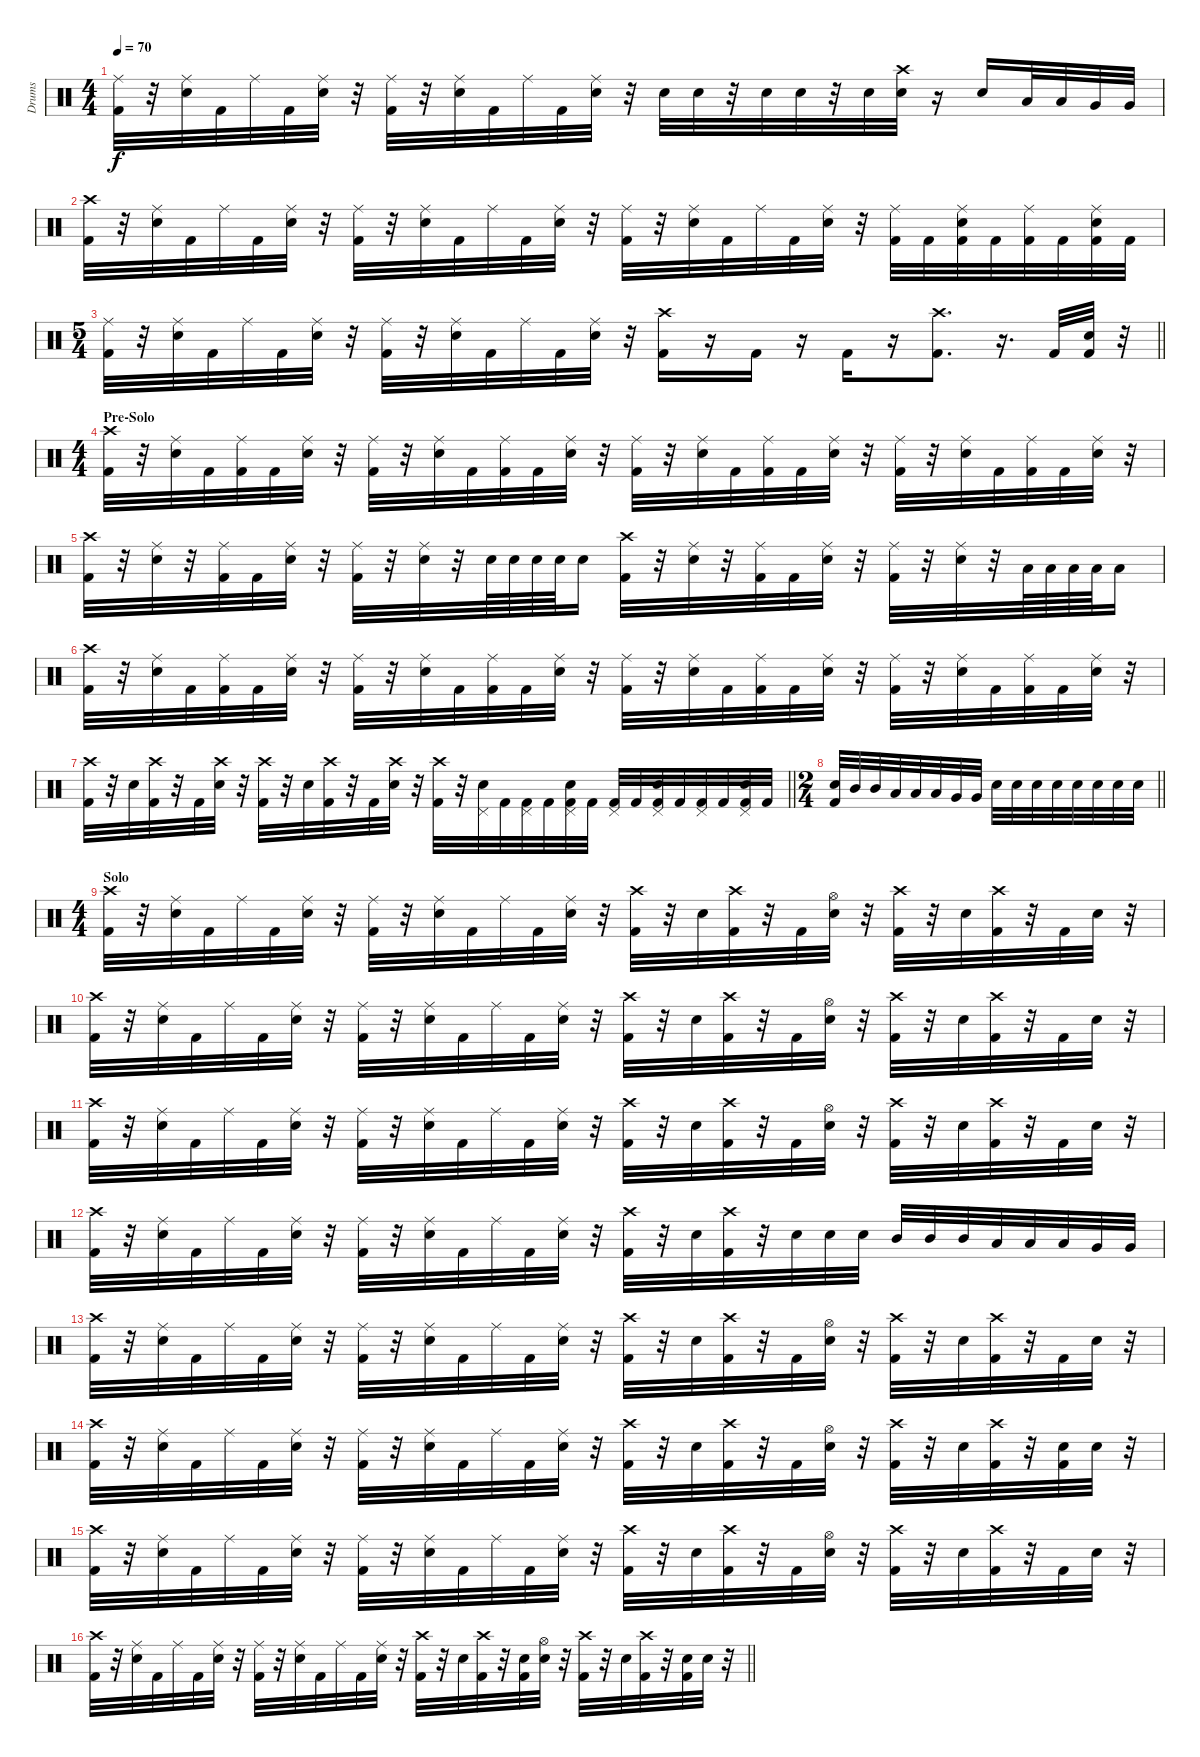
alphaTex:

\track ("Drums" "Drums") {instrument percussion}
\staff {score}
\articulation defaults
\ts (4 4)
\tempo 70
\clef neutral
\ks c
("Ride (middle)" "Kick (hit) 2").32{dy f} r.32 ("Ride (middle)" "Snare (hit) 2").32 "Kick (hit) 2".32 "Ride (middle)".32 "Kick (hit) 2".32 ("Ride (middle)" "Snare (hit) 2").32 r.32 ("Ride (middle)" "Kick (hit) 2").32 r.32 ("Ride (middle)" "Snare (hit) 2").32 "Kick (hit) 2".32 "Ride (middle)".32 "Kick (hit) 2".32 ("Ride (middle)" "Snare (hit) 2").32 r.32 "Snare (hit) 2".32 "Snare (hit) 2".32 r.32 "Snare (hit) 2".32 "Snare (hit) 2".32 r.32 "Snare (hit) 2".32 ("Crash high (hit)" "Snare (hit) 2").32 r.16 "Snare (hit) 2".16 "Low Tom (hit)".32 "Low Tom (hit)".32 "Very Low Tom (hit)".32 "Very Low Tom (hit)".32 |
("Crash high (hit)" "Kick (hit) 2").32 r.32 ("Ride (middle)" "Snare (hit) 2").32 "Kick (hit) 2".32 "Ride (middle)".32 "Kick (hit) 2".32 ("Ride (middle)" "Snare (hit) 2").32 r.32 ("Ride (middle)" "Kick (hit) 2").32 r.32 ("Ride (middle)" "Snare (hit) 2").32 "Kick (hit) 2".32 "Ride (middle)".32 "Kick (hit) 2".32 ("Ride (middle)" "Snare (hit) 2").32 r.32 ("Ride (middle)" "Kick (hit) 2").32 r.32 ("Ride (middle)" "Snare (hit) 2").32 "Kick (hit) 2".32 "Ride (middle)".32 "Kick (hit) 2".32 ("Ride (middle)" "Snare (hit) 2").32 r.32 ("Ride (middle)" "Kick (hit) 2").32 "Kick (hit) 2".32 ("Ride (middle)" "Snare (hit) 2" "Kick (hit) 2").32 "Kick (hit) 2".32 ("Ride (middle)" "Kick (hit) 2").32 "Kick (hit) 2".32 ("Ride (middle)" "Snare (hit) 2" "Kick (hit) 2").32 "Kick (hit) 2".32 |
\ts (5 4)
\barLineRight lightlight
("Ride (middle)" "Kick (hit) 2").32 r.32 ("Ride (middle)" "Snare (hit) 2").32 "Kick (hit) 2".32 "Ride (middle)".32 "Kick (hit) 2".32 ("Ride (middle)" "Snare (hit) 2").32 r.32 ("Ride (middle)" "Kick (hit) 2").32 r.32 ("Ride (middle)" "Snare (hit) 2").32 "Kick (hit) 2".32 "Ride (middle)".32 "Kick (hit) 2".32 ("Ride (middle)" "Snare (hit) 2").32 r.32 ("Crash high (hit)" "Kick (hit) 2").16 r.16 "Kick (hit) 2".16 r.16 "Kick (hit) 2".16 r.16 ("Crash high (hit)" "Kick (hit) 2").8{d} r.16{d} "Kick (hit) 2".32 ("Snare (hit) 2" "Kick (hit) 2").32 r.32 |
\ts (4 4)
\section ("" "Pre-Solo")
("Crash high (hit)" "Kick (hit) 2").32 r.32 ("Ride (middle)" "Snare (hit) 2").32 "Kick (hit) 2".32 ("Ride (middle)" "Kick (hit) 2").32 "Kick (hit) 2".32 ("Ride (middle)" "Snare (hit) 2").32 r.32 ("Ride (middle)" "Kick (hit) 2").32 r.32 ("Ride (middle)" "Snare (hit) 2").32 "Kick (hit) 2".32 ("Ride (middle)" "Kick (hit) 2").32 "Kick (hit) 2".32 ("Ride (middle)" "Snare (hit) 2").32 r.32 ("Ride (middle)" "Kick (hit) 2").32 r.32 ("Ride (middle)" "Snare (hit) 2").32 "Kick (hit) 2".32 ("Ride (middle)" "Kick (hit) 2").32 "Kick (hit) 2".32 ("Ride (middle)" "Snare (hit) 2").32 r.32 ("Ride (middle)" "Kick (hit) 2").32 r.32 ("Ride (middle)" "Snare (hit) 2").32 "Kick (hit) 2".32 ("Ride (middle)" "Kick (hit) 2").32 "Kick (hit) 2".32 ("Ride (middle)" "Snare (hit) 2").32 r.32 |
("Crash high (hit)" "Kick (hit) 2").32 r.32 ("Ride (middle)" "Snare (hit) 2").32 r.32 ("Ride (middle)" "Kick (hit) 2").32 "Kick (hit) 2".32 ("Ride (middle)" "Snare (hit) 2").32 r.32 ("Ride (middle)" "Kick (hit) 2").32 r.32 ("Ride (middle)" "Snare (hit) 2").32 r.32 "Snare (hit) 2".64 "Snare (hit) 2".64 "Snare (hit) 2".64 "Snare (hit) 2".64 "Snare (hit) 2".16 ("Crash high (hit)" "Kick (hit) 2").32 r.32 ("Ride (middle)" "Snare (hit) 2").32 r.32 ("Ride (middle)" "Kick (hit) 2").32 "Kick (hit) 2".32 ("Ride (middle)" "Snare (hit) 2").32 r.32 ("Ride (middle)" "Kick (hit) 2").32 r.32 ("Ride (middle)" "Snare (hit) 2").32 r.32 "Low Tom (hit)".64 "Low Tom (hit)".64 "Low Tom (hit)".64 "Low Tom (hit)".64 "Low Tom (hit)".16 |
("Crash high (hit)" "Kick (hit) 2").32 r.32 ("Ride (middle)" "Snare (hit) 2").32 "Kick (hit) 2".32 ("Ride (middle)" "Kick (hit) 2").32 "Kick (hit) 2".32 ("Ride (middle)" "Snare (hit) 2").32 r.32 ("Ride (middle)" "Kick (hit) 2").32 r.32 ("Ride (middle)" "Snare (hit) 2").32 "Kick (hit) 2".32 ("Ride (middle)" "Kick (hit) 2").32 "Kick (hit) 2".32 ("Ride (middle)" "Snare (hit) 2").32 r.32 ("Ride (middle)" "Kick (hit) 2").32 r.32 ("Ride (middle)" "Snare (hit) 2").32 "Kick (hit) 2".32 ("Ride (middle)" "Kick (hit) 2").32 "Kick (hit) 2".32 ("Ride (middle)" "Snare (hit) 2").32 r.32 ("Ride (middle)" "Kick (hit) 2").32 r.32 ("Ride (middle)" "Snare (hit) 2").32 "Kick (hit) 2".32 ("Ride (middle)" "Kick (hit) 2").32 "Kick (hit) 2".32 ("Ride (middle)" "Snare (hit) 2").32 r.32 |
\barLineRight lightlight
("Crash high (hit)" "Kick (hit) 2").32 r.32 "Snare (hit) 2".32 ("Crash high (hit)" "Kick (hit) 2").32 r.32 "Kick (hit) 2".32 ("Crash high (hit)" "Snare (hit) 2").32 r.32 ("Crash high (hit)" "Kick (hit) 2").32 r.32 "Snare (hit) 2".32 ("Crash high (hit)" "Kick (hit) 2").32 r.32 "Kick (hit) 2".32 ("Crash high (hit)" "Snare (hit) 2").32 r.32 ("Crash high (hit)" "Kick (hit) 2").32 r.32 ("Pedal Hi-Hat (hit)" "Snare (hit) 2").32 "Kick (hit) 2".32 ("Pedal Hi-Hat (hit)" "Kick (hit) 2").32 "Kick (hit) 2".32 ("Pedal Hi-Hat (hit)" "Snare (hit) 2" "Kick (hit) 2").32 "Kick (hit) 2".32 ("Pedal Hi-Hat (hit)" "Kick (hit) 2").32 "Kick (hit) 2".32 ("Pedal Hi-Hat (hit)" "Snare (hit) 2" "Kick (hit) 2").32 "Kick (hit) 2".32 ("Pedal Hi-Hat (hit)" "Kick (hit) 2").32 "Kick (hit) 2".32 ("Pedal Hi-Hat (hit)" "Snare (hit) 2" "Kick (hit) 2").32 "Kick (hit) 2".32 |
\ts (2 4)
\barLineRight lightlight
("Snare (hit) 2" "Kick (hit) 2").32 "Mid Tom (hit)".32 "Mid Tom (hit)".32 "Low Tom (hit)".32 "Low Tom (hit)".32 "Low Tom (hit)".32 "Very Low Tom (hit)".32 "Very Low Tom (hit)".32 "Snare (hit) 2".32 "Snare (hit) 2".32 "Snare (hit) 2".32 "Snare (hit) 2".32 "Snare (hit) 2".32 "Snare (hit) 2".32 "Snare (hit) 2".32 "Snare (hit) 2".32 |
\ts (4 4)
\section ("" "Solo")
("Crash high (hit)" "Kick (hit) 2").32 r.32 ("Ride (middle)" "Snare (hit) 2").32 "Kick (hit) 2".32 "Ride (middle)".32 "Kick (hit) 2".32 ("Ride (middle)" "Snare (hit) 2").32 r.32 ("Ride (middle)" "Kick (hit) 2").32 r.32 ("Ride (middle)" "Snare (hit) 2").32 "Kick (hit) 2".32 "Ride (middle)".32 "Kick (hit) 2".32 ("Ride (middle)" "Snare (hit) 2").32 r.32 ("Crash high (hit)" "Kick (hit) 2").32 r.32 "Snare (hit) 2".32 ("Crash high (hit)" "Kick (hit) 2").32 r.32 "Kick (hit) 2".32 ("Hi-Hat (open)" "Snare (hit) 2").32 r.32 ("Crash high (hit)" "Kick (hit) 2").32 r.32 "Snare (hit) 2".32 ("Crash high (hit)" "Kick (hit) 2").32 r.32 "Kick (hit) 2".32 "Snare (hit) 2".32 r.32 |
("Crash high (hit)" "Kick (hit) 2").32 r.32 ("Ride (middle)" "Snare (hit) 2").32 "Kick (hit) 2".32 "Ride (middle)".32 "Kick (hit) 2".32 ("Ride (middle)" "Snare (hit) 2").32 r.32 ("Ride (middle)" "Kick (hit) 2").32 r.32 ("Ride (middle)" "Snare (hit) 2").32 "Kick (hit) 2".32 "Ride (middle)".32 "Kick (hit) 2".32 ("Ride (middle)" "Snare (hit) 2").32 r.32 ("Crash high (hit)" "Kick (hit) 2").32 r.32 "Snare (hit) 2".32 ("Crash high (hit)" "Kick (hit) 2").32 r.32 "Kick (hit) 2".32 ("Hi-Hat (open)" "Snare (hit) 2").32 r.32 ("Crash high (hit)" "Kick (hit) 2").32 r.32 "Snare (hit) 2".32 ("Crash high (hit)" "Kick (hit) 2").32 r.32 "Kick (hit) 2".32 "Snare (hit) 2".32 r.32 |
("Crash high (hit)" "Kick (hit) 2").32 r.32 ("Ride (middle)" "Snare (hit) 2").32 "Kick (hit) 2".32 "Ride (middle)".32 "Kick (hit) 2".32 ("Ride (middle)" "Snare (hit) 2").32 r.32 ("Ride (middle)" "Kick (hit) 2").32 r.32 ("Ride (middle)" "Snare (hit) 2").32 "Kick (hit) 2".32 "Ride (middle)".32 "Kick (hit) 2".32 ("Ride (middle)" "Snare (hit) 2").32 r.32 ("Crash high (hit)" "Kick (hit) 2").32 r.32 "Snare (hit) 2".32 ("Crash high (hit)" "Kick (hit) 2").32 r.32 "Kick (hit) 2".32 ("Hi-Hat (open)" "Snare (hit) 2").32 r.32 ("Crash high (hit)" "Kick (hit) 2").32 r.32 "Snare (hit) 2".32 ("Crash high (hit)" "Kick (hit) 2").32 r.32 "Kick (hit) 2".32 "Snare (hit) 2".32 r.32 |
("Crash high (hit)" "Kick (hit) 2").32 r.32 ("Ride (middle)" "Snare (hit) 2").32 "Kick (hit) 2".32 "Ride (middle)".32 "Kick (hit) 2".32 ("Ride (middle)" "Snare (hit) 2").32 r.32 ("Ride (middle)" "Kick (hit) 2").32 r.32 ("Ride (middle)" "Snare (hit) 2").32 "Kick (hit) 2".32 "Ride (middle)".32 "Kick (hit) 2".32 ("Ride (middle)" "Snare (hit) 2").32 r.32 ("Crash high (hit)" "Kick (hit) 2").32 r.32 "Snare (hit) 2".32 ("Crash high (hit)" "Kick (hit) 2").32 r.32 "Snare (hit) 2".32 "Snare (hit) 2".32 "Snare (hit) 2".32 "Mid Tom (hit)".32 "Mid Tom (hit)".32 "Mid Tom (hit)".32 "Low Tom (hit)".32 "Low Tom (hit)".32 "Low Tom (hit)".32 "Very Low Tom (hit)".32 "Very Low Tom (hit)".32 |
("Crash high (hit)" "Kick (hit) 2").32 r.32 ("Ride (middle)" "Snare (hit) 2").32 "Kick (hit) 2".32 "Ride (middle)".32 "Kick (hit) 2".32 ("Ride (middle)" "Snare (hit) 2").32 r.32 ("Ride (middle)" "Kick (hit) 2").32 r.32 ("Ride (middle)" "Snare (hit) 2").32 "Kick (hit) 2".32 "Ride (middle)".32 "Kick (hit) 2".32 ("Ride (middle)" "Snare (hit) 2").32 r.32 ("Crash high (hit)" "Kick (hit) 2").32 r.32 "Snare (hit) 2".32 ("Crash high (hit)" "Kick (hit) 2").32 r.32 "Kick (hit) 2".32 ("Hi-Hat (open)" "Snare (hit) 2").32 r.32 ("Crash high (hit)" "Kick (hit) 2").32 r.32 "Snare (hit) 2".32 ("Crash high (hit)" "Kick (hit) 2").32 r.32 "Kick (hit) 2".32 "Snare (hit) 2".32 r.32 |
("Crash high (hit)" "Kick (hit) 2").32 r.32 ("Ride (middle)" "Snare (hit) 2").32 "Kick (hit) 2".32 "Ride (middle)".32 "Kick (hit) 2".32 ("Ride (middle)" "Snare (hit) 2").32 r.32 ("Ride (middle)" "Kick (hit) 2").32 r.32 ("Ride (middle)" "Snare (hit) 2").32 "Kick (hit) 2".32 "Ride (middle)".32 "Kick (hit) 2".32 ("Ride (middle)" "Snare (hit) 2").32 r.32 ("Crash high (hit)" "Kick (hit) 2").32 r.32 "Snare (hit) 2".32 ("Crash high (hit)" "Kick (hit) 2").32 r.32 "Kick (hit) 2".32 ("Hi-Hat (open)" "Snare (hit) 2").32 r.32 ("Crash high (hit)" "Kick (hit) 2").32 r.32 "Snare (hit) 2".32 ("Crash high (hit)" "Kick (hit) 2").32 r.32 ("Snare (hit) 2" "Kick (hit) 2").32 "Snare (hit) 2".32 r.32 |
("Crash high (hit)" "Kick (hit) 2").32 r.32 ("Ride (middle)" "Snare (hit) 2").32 "Kick (hit) 2".32 "Ride (middle)".32 "Kick (hit) 2".32 ("Ride (middle)" "Snare (hit) 2").32 r.32 ("Ride (middle)" "Kick (hit) 2").32 r.32 ("Ride (middle)" "Snare (hit) 2").32 "Kick (hit) 2".32 "Ride (middle)".32 "Kick (hit) 2".32 ("Ride (middle)" "Snare (hit) 2").32 r.32 ("Crash high (hit)" "Kick (hit) 2").32 r.32 "Snare (hit) 2".32 ("Crash high (hit)" "Kick (hit) 2").32 r.32 "Kick (hit) 2".32 ("Hi-Hat (open)" "Snare (hit) 2").32 r.32 ("Crash high (hit)" "Kick (hit) 2").32 r.32 "Snare (hit) 2".32 ("Crash high (hit)" "Kick (hit) 2").32 r.32 "Kick (hit) 2".32 "Snare (hit) 2".32 r.32 |
\barLineRight lightlight
("Crash high (hit)" "Kick (hit) 2").32 r.32 ("Ride (middle)" "Snare (hit) 2").32 "Kick (hit) 2".32 "Ride (middle)".32 "Kick (hit) 2".32 ("Ride (middle)" "Snare (hit) 2").32 r.32 ("Ride (middle)" "Kick (hit) 2").32 r.32 ("Ride (middle)" "Snare (hit) 2").32 "Kick (hit) 2".32 "Ride (middle)".32 "Kick (hit) 2".32 ("Ride (middle)" "Snare (hit) 2").32 r.32 ("Crash high (hit)" "Kick (hit) 2").32 r.32 "Snare (hit) 2".32 ("Crash high (hit)" "Kick (hit) 2").32 r.32 ("Snare (hit) 2" "Kick (hit) 2").32 ("Hi-Hat (open)" "Snare (hit) 2").32 r.32 ("Crash high (hit)" "Kick (hit) 2").32 r.32 "Snare (hit) 2".32 ("Crash high (hit)" "Kick (hit) 2").32 r.32 ("Snare (hit) 2" "Kick (hit) 2").32 "Snare (hit) 2".32 r.32
